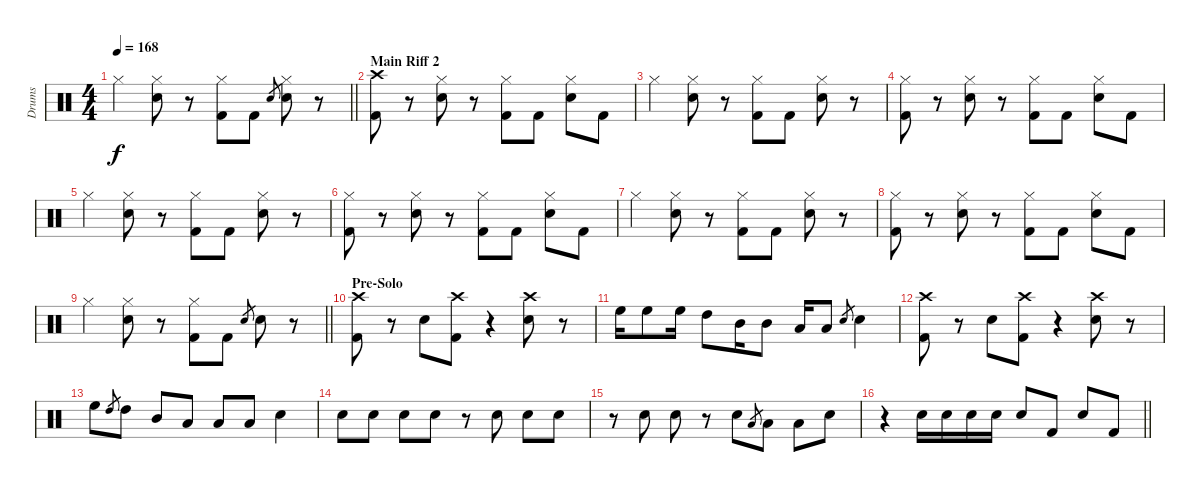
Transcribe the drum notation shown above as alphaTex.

\track ("Drums" "Drums") {instrument percussion}
\staff {score}
\articulation defaults
\ts (4 4)
\tempo 168
\clef neutral
\barLineRight lightlight
\ks c "Hi-Hat (closed)".4{dy f}
("Hi-Hat (closed)" "Electric Snare (hit)").8 r.8 ("Hi-Hat (closed)" "Kick (hit) 2").8 "Kick (hit) 2".8 "Electric Snare (hit)".8{gr} ("Hi-Hat (closed)" "Electric Snare (hit)").8 r.8 |
\section ("" "Main Riff 2")
("Crash high (hit)" "Kick (hit) 2").8 r.8 ("Hi-Hat (closed)" "Electric Snare (hit)").8 r.8 ("Hi-Hat (closed)" "Kick (hit) 2").8 "Kick (hit) 2".8 ("Hi-Hat (closed)" "Electric Snare (hit)").8 "Kick (hit) 2".8 |
"Hi-Hat (closed)".4 ("Hi-Hat (closed)" "Electric Snare (hit)").8 r.8 ("Hi-Hat (closed)" "Kick (hit) 2").8 "Kick (hit) 2".8 ("Hi-Hat (closed)" "Electric Snare (hit)").8 r.8 |
("Hi-Hat (closed)" "Kick (hit) 2").8 r.8 ("Hi-Hat (closed)" "Electric Snare (hit)").8 r.8 ("Hi-Hat (closed)" "Kick (hit) 2").8 "Kick (hit) 2".8 ("Hi-Hat (closed)" "Electric Snare (hit)").8 "Kick (hit) 2".8 |
"Hi-Hat (closed)".4 ("Hi-Hat (closed)" "Electric Snare (hit)").8 r.8 ("Hi-Hat (closed)" "Kick (hit) 2").8 "Kick (hit) 2".8 ("Hi-Hat (closed)" "Electric Snare (hit)").8 r.8 |
("Hi-Hat (closed)" "Kick (hit) 2").8 r.8 ("Hi-Hat (closed)" "Electric Snare (hit)").8 r.8 ("Hi-Hat (closed)" "Kick (hit) 2").8 "Kick (hit) 2".8 ("Hi-Hat (closed)" "Electric Snare (hit)").8 "Kick (hit) 2".8 |
"Hi-Hat (closed)".4 ("Hi-Hat (closed)" "Electric Snare (hit)").8 r.8 ("Hi-Hat (closed)" "Kick (hit) 2").8 "Kick (hit) 2".8 ("Hi-Hat (closed)" "Electric Snare (hit)").8 r.8 |
("Hi-Hat (closed)" "Kick (hit) 2").8 r.8 ("Hi-Hat (closed)" "Electric Snare (hit)").8 r.8 ("Hi-Hat (closed)" "Kick (hit) 2").8 "Kick (hit) 2".8 ("Hi-Hat (closed)" "Electric Snare (hit)").8 "Kick (hit) 2".8 |
\barLineRight lightlight "Hi-Hat (closed)".4
("Hi-Hat (closed)" "Electric Snare (hit)").8 r.8 ("Hi-Hat (closed)" "Kick (hit) 2").8 "Kick (hit) 2".8 "Electric Snare (hit)".8{gr} "Electric Snare (hit)".8 r.8 |
\section ("" "Pre-Solo")
("Crash high (hit)" "Kick (hit) 2").8 r.8 "Electric Snare (hit)".8 ("Crash high (hit)" "Kick (hit) 2").8 r.4 ("Crash high (hit)" "Electric Snare (hit)").8 r.8 |
"High Floor Tom (hit)".16 "High Floor Tom (hit)".8 "High Floor Tom (hit)".16 "High Tom (hit)".8 "Mid Tom (hit)".16 "Mid Tom (hit)".8 "Low Tom (hit)".16 "Low Tom (hit)".8 "Electric Snare (hit)".8{gr} "Electric Snare (hit)".4 |
("Crash high (hit)" "Kick (hit) 2").8 r.8 "Electric Snare (hit)".8 ("Crash high (hit)" "Kick (hit) 2").8 r.4 ("Crash high (hit)" "Electric Snare (hit)").8 r.8 |
"High Floor Tom (hit)".8 "High Tom (hit)".8{gr} "High Tom (hit)".8 "Mid Tom (hit)".8 "Low Tom (hit)".8 "Low Tom (hit)".8 "Low Tom (hit)".8 "Electric Snare (hit)".4 |
"Electric Snare (hit)".8 "Electric Snare (hit)".8 "Electric Snare (hit)".8 "Electric Snare (hit)".8 r.8 "Electric Snare (hit)".8 "Electric Snare (hit)".8 "Electric Snare (hit)".8 |
r.8 "Electric Snare (hit)".8 "Electric Snare (hit)".8 r.8 "Electric Snare (hit)".8 "Low Tom (hit)".8{gr} "Low Tom (hit)".8 "Low Tom (hit)".8 "Electric Snare (hit)".8 |
\barLineRight lightlight
r.4 "Electric Snare (hit)".16 "Electric Snare (hit)".16 "Electric Snare (hit)".16 "Electric Snare (hit)".16 "Electric Snare (hit)".8 "Kick (hit) 2".8 "Electric Snare (hit)".8 "Kick (hit) 2".8
